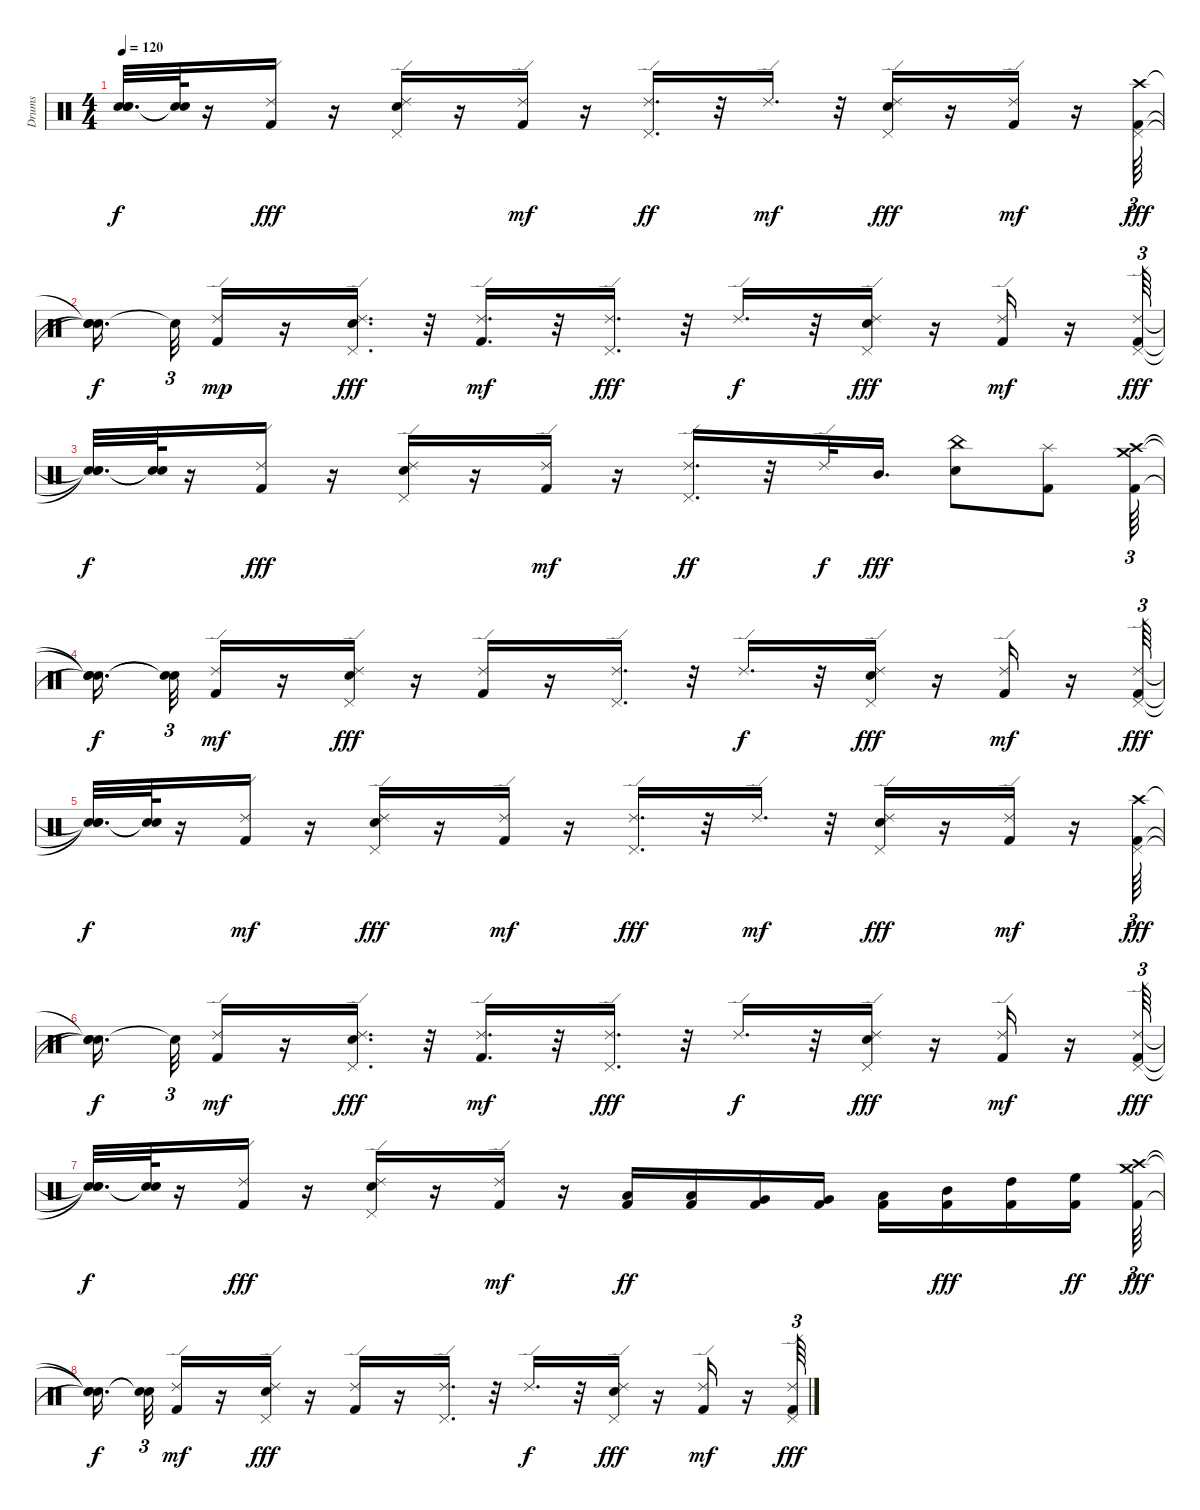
\track ("Drums" "Drums") {instrument percussion}
\staff {score}
\articulation defaults
\ts (4 4)
\tempo 120
\clef neutral
\ks c
("Snare (hit)"{t} "Snare (hit)"{t} "Snare (hit)"{t}).32{d dy f} ("Snare (hit)"{t} "Snare (hit)"{t}).64 r.16 ("Ride (edge) 2" "Kick (hit) 2").16{dy fff} r.16 ("Snare (hit) 2" "Pedal Hi-Hat (hit)" "Ride (edge) 2").16 r.16 ("Kick (hit) 2" "Ride (edge) 2").16{dy mf} r.16 ("Pedal Hi-Hat (hit)" "Ride (edge) 2").16{d dy ff} r.32 "Ride (edge) 2".16{d dy mf} r.32 ("Pedal Hi-Hat (hit)" "Snare (hit) 2" "Ride (edge) 2").16{dy fff} r.16 ("Kick (hit) 2" "Ride (edge) 2").16{dy mf} r.16 ("Pedal Hi-Hat (hit)" "Crash high (hit)" "Kick (hit) 2").64{tu (3 2) dy fff} |
("Snare (hit)"{t} "Snare (hit)"{t} "Snare (hit)"{t}).16{d dy f beam splitsecondary} "Snare (hit)"{t}.32{tu (3 2)} ("Kick (hit) 2" "Ride (edge) 2").16{dy mp} r.16 ("Snare (hit) 2" "Ride (edge) 2" "Pedal Hi-Hat (hit)").16{d dy fff} r.32 ("Kick (hit) 2" "Ride (edge) 2").16{d dy mf} r.32 ("Pedal Hi-Hat (hit)" "Ride (edge) 2").16{d dy fff} r.32 "Ride (edge) 2".16{d dy f} r.32 ("Pedal Hi-Hat (hit)" "Snare (hit) 2" "Ride (edge) 2").16{dy fff} r.16 ("Kick (hit) 2" "Ride (edge) 2").16{dy mf} r.16 ("Ride (edge) 2" "Pedal Hi-Hat (hit)" "Kick (hit) 2").64{tu (3 2) dy fff} |
("Snare (hit)"{t} "Snare (hit)"{t} "Snare (hit)"{t}).32{d dy f} ("Snare (hit)"{t} "Snare (hit)"{t}).64 r.16 ("Ride (edge) 2" "Kick (hit) 2").16{dy fff} r.16 ("Snare (hit) 2" "Pedal Hi-Hat (hit)" "Ride (edge) 2").16 r.16 ("Kick (hit) 2" "Ride (edge) 2").16{dy mf} r.16 ("Pedal Hi-Hat (hit)" "Ride (edge) 2").16{d dy ff} r.32 "Ride (edge) 2".32{dy f} "Mid Tom (hit)".16{d dy fff} ("Snare (hit) 2" "China (hit)").8 ("Splash (hit)" "Kick (hit) 2").8 ("Crash high (hit)" "Kick (hit) 2" "Crash medium (hit)").64{tu (3 2)} |
("Snare (hit)"{t} "Snare (hit)"{t} "Snare (hit)"{t}).16{d dy f beam splitsecondary} ("Snare (hit)"{t} "Snare (hit)"{t}).32{tu (3 2)} ("Kick (hit) 2" "Ride (edge) 2").16{dy mf} r.16 ("Snare (hit) 2" "Pedal Hi-Hat (hit)" "Ride (edge) 2").16{dy fff} r.16 ("Kick (hit) 2" "Ride (edge) 2").16 r.16 ("Pedal Hi-Hat (hit)" "Ride (edge) 2").16{d} r.32 "Ride (edge) 2".16{d dy f} r.32 ("Pedal Hi-Hat (hit)" "Ride (edge) 2" "Snare (hit) 2").16{dy fff} r.16 ("Kick (hit) 2" "Ride (edge) 2").16{dy mf} r.16 ("Ride (edge) 2" "Kick (hit) 2" "Pedal Hi-Hat (hit)").64{tu (3 2) dy fff} |
("Snare (hit)"{t} "Snare (hit)"{t} "Snare (hit)"{t}).32{d dy f} ("Snare (hit)"{t} "Snare (hit)"{t}).64 r.16 ("Kick (hit) 2" "Ride (edge) 2").16{dy mf} r.16 ("Ride (edge) 2" "Pedal Hi-Hat (hit)" "Snare (hit) 2").16{dy fff} r.16 ("Kick (hit) 2" "Ride (edge) 2").16{dy mf} r.16 ("Pedal Hi-Hat (hit)" "Ride (edge) 2").16{d dy fff} r.32 "Ride (edge) 2".16{d dy mf} r.32 ("Pedal Hi-Hat (hit)" "Ride (edge) 2" "Snare (hit) 2").16{dy fff} r.16 ("Kick (hit) 2" "Ride (edge) 2").16{dy mf} r.16 ("Kick (hit) 2" "Crash high (hit)" "Pedal Hi-Hat (hit)").64{tu (3 2) dy fff} |
("Snare (hit)"{t} "Snare (hit)"{t} "Snare (hit)"{t}).16{d dy f beam splitsecondary} "Snare (hit)"{t}.32{tu (3 2)} ("Kick (hit) 2" "Ride (edge) 2").16{dy mf} r.16 ("Pedal Hi-Hat (hit)" "Ride (edge) 2" "Snare (hit) 2").16{d dy fff} r.32 ("Kick (hit) 2" "Ride (edge) 2").16{d dy mf} r.32 ("Pedal Hi-Hat (hit)" "Ride (edge) 2").16{d dy fff} r.32 "Ride (edge) 2".16{d dy f} r.32 ("Pedal Hi-Hat (hit)" "Ride (edge) 2" "Snare (hit) 2").16{dy fff} r.16 ("Kick (hit) 2" "Ride (edge) 2").16{dy mf} r.16 ("Ride (edge) 2" "Kick (hit) 2" "Pedal Hi-Hat (hit)").64{tu (3 2) dy fff} |
("Snare (hit)"{t} "Snare (hit)"{t} "Snare (hit)"{t}).32{d dy f} ("Snare (hit)"{t} "Snare (hit)"{t}).64 r.16 ("Kick (hit) 2" "Ride (edge) 2").16{dy fff} r.16 ("Ride (edge) 2" "Pedal Hi-Hat (hit)" "Snare (hit) 2").16 r.16 ("Kick (hit) 2" "Ride (edge) 2").16{dy mf} r.16 ("Kick (hit) 2" "Low Floor Tom (hit)").16{dy ff} ("Kick (hit) 2" "Low Floor Tom (hit)").16 ("Very Low Tom (hit)" "Kick (hit) 2").16 ("Kick (hit) 2" "Very Low Tom (hit)").16 ("Kick (hit) 2" "Low Tom (hit)").16 ("Mid Tom (hit)" "Kick (hit) 2").16{dy fff} ("Kick (hit) 2" "High Tom (hit)").16 ("High Floor Tom (hit)" "Kick (hit) 2").16{dy ff} ("Crash high (hit)" "Kick (hit) 2" "Crash medium (hit)").64{tu (3 2) dy fff} |
("Snare (hit)"{t} "Snare (hit)"{t} "Snare (hit)"{t}).16{d dy f beam splitsecondary} ("Snare (hit)"{t} "Snare (hit)"{t}).32{tu (3 2)} ("Kick (hit) 2" "Ride (edge) 2").16{dy mf} r.16 ("Snare (hit) 2" "Pedal Hi-Hat (hit)" "Ride (edge) 2").16{dy fff} r.16 ("Kick (hit) 2" "Ride (edge) 2").16 r.16 ("Pedal Hi-Hat (hit)" "Ride (edge) 2").16{d} r.32 "Ride (edge) 2".16{d dy f} r.32 ("Pedal Hi-Hat (hit)" "Ride (edge) 2" "Snare (hit) 2").16{dy fff} r.16 ("Kick (hit) 2" "Ride (edge) 2").16{dy mf} r.16 ("Ride (edge) 2" "Kick (hit) 2" "Pedal Hi-Hat (hit)").64{tu (3 2) dy fff}
